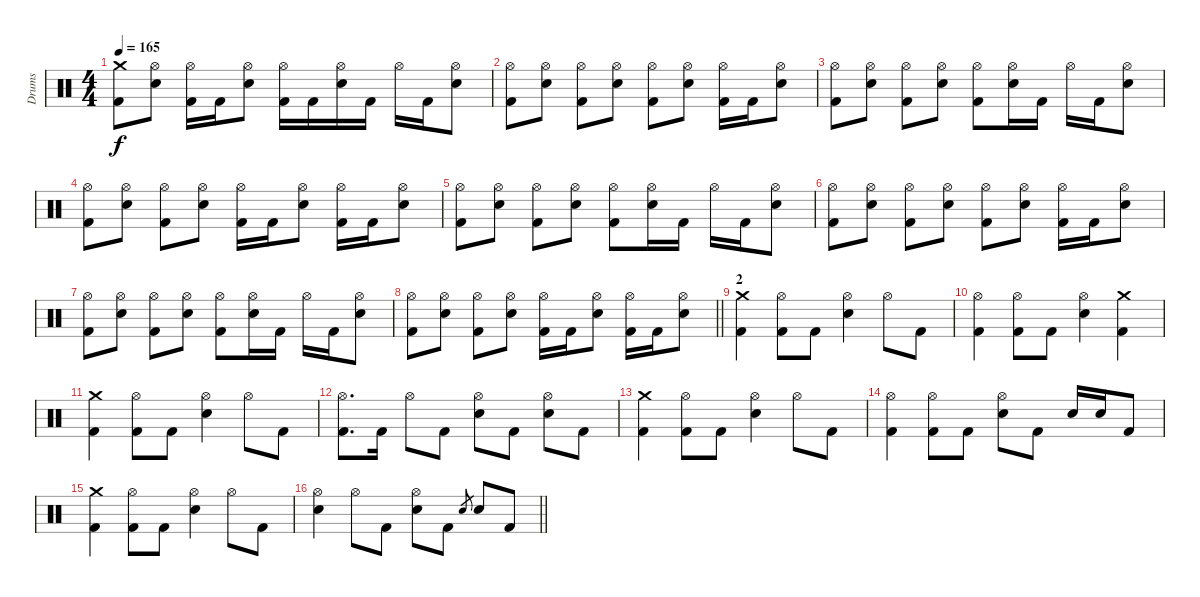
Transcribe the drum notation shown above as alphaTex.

\track ("Drums" "Drums") {instrument percussion}
\staff {score}
\articulation defaults
\ts (4 4)
\tempo 165
\clef neutral
\ks c
("Crash medium (hit)" "Kick (hit) 2").8{dy f} ("Hi-Hat (open)" "Electric Snare (hit)").8 ("Hi-Hat (open)" "Kick (hit) 2").16 "Kick (hit) 2".16 ("Hi-Hat (open)" "Electric Snare (hit)").8 ("Hi-Hat (open)" "Kick (hit) 2").16 "Kick (hit) 2".16 ("Hi-Hat (open)" "Electric Snare (hit)").16 "Kick (hit) 2".16 "Hi-Hat (open)".16 "Kick (hit) 2".16 ("Hi-Hat (open)" "Electric Snare (hit)").8 |
("Hi-Hat (open)" "Kick (hit) 2").8 ("Hi-Hat (open)" "Electric Snare (hit)").8 ("Hi-Hat (open)" "Kick (hit) 2").8 ("Hi-Hat (open)" "Electric Snare (hit)").8 ("Hi-Hat (open)" "Kick (hit) 2").8 ("Hi-Hat (open)" "Electric Snare (hit)").8 ("Hi-Hat (open)" "Kick (hit) 2").16 "Kick (hit) 2".16 ("Hi-Hat (open)" "Electric Snare (hit)").8 |
("Hi-Hat (open)" "Kick (hit) 2").8 ("Hi-Hat (open)" "Electric Snare (hit)").8 ("Hi-Hat (open)" "Kick (hit) 2").8 ("Hi-Hat (open)" "Electric Snare (hit)").8 ("Hi-Hat (open)" "Kick (hit) 2").8 ("Hi-Hat (open)" "Electric Snare (hit)").16 "Kick (hit) 2".16 "Hi-Hat (open)".16 "Kick (hit) 2".16 ("Hi-Hat (open)" "Electric Snare (hit)").8 |
("Hi-Hat (open)" "Kick (hit) 2").8 ("Hi-Hat (open)" "Electric Snare (hit)").8 ("Hi-Hat (open)" "Kick (hit) 2").8 ("Hi-Hat (open)" "Electric Snare (hit)").8 ("Hi-Hat (open)" "Kick (hit) 2").16 "Kick (hit) 2".16 ("Hi-Hat (open)" "Electric Snare (hit)").8 ("Hi-Hat (open)" "Kick (hit) 2").16 "Kick (hit) 2".16 ("Hi-Hat (open)" "Electric Snare (hit)").8 |
("Hi-Hat (open)" "Kick (hit) 2").8 ("Hi-Hat (open)" "Electric Snare (hit)").8 ("Hi-Hat (open)" "Kick (hit) 2").8 ("Hi-Hat (open)" "Electric Snare (hit)").8 ("Hi-Hat (open)" "Kick (hit) 2").8 ("Hi-Hat (open)" "Electric Snare (hit)").16 "Kick (hit) 2".16 "Hi-Hat (open)".16 "Kick (hit) 2".16 ("Hi-Hat (open)" "Electric Snare (hit)").8 |
("Hi-Hat (open)" "Kick (hit) 2").8 ("Hi-Hat (open)" "Electric Snare (hit)").8 ("Hi-Hat (open)" "Kick (hit) 2").8 ("Hi-Hat (open)" "Electric Snare (hit)").8 ("Hi-Hat (open)" "Kick (hit) 2").8 ("Hi-Hat (open)" "Electric Snare (hit)").8 ("Hi-Hat (open)" "Kick (hit) 2").16 "Kick (hit) 2".16 ("Hi-Hat (open)" "Electric Snare (hit)").8 |
("Hi-Hat (open)" "Kick (hit) 2").8 ("Hi-Hat (open)" "Electric Snare (hit)").8 ("Hi-Hat (open)" "Kick (hit) 2").8 ("Hi-Hat (open)" "Electric Snare (hit)").8 ("Hi-Hat (open)" "Kick (hit) 2").8 ("Hi-Hat (open)" "Electric Snare (hit)").16 "Kick (hit) 2".16 "Hi-Hat (open)".16 "Kick (hit) 2".16 ("Hi-Hat (open)" "Electric Snare (hit)").8 |
\barLineRight lightlight
("Hi-Hat (open)" "Kick (hit) 2").8 ("Hi-Hat (open)" "Electric Snare (hit)").8 ("Hi-Hat (open)" "Kick (hit) 2").8 ("Hi-Hat (open)" "Electric Snare (hit)").8 ("Hi-Hat (open)" "Kick (hit) 2").16 "Kick (hit) 2".16 ("Hi-Hat (open)" "Electric Snare (hit)").8 ("Hi-Hat (open)" "Kick (hit) 2").16 "Kick (hit) 2".16 ("Hi-Hat (open)" "Electric Snare (hit)").8 |
\section ("" "2")
("Crash medium (hit)" "Kick (hit) 2").4 ("Hi-Hat (open)" "Kick (hit) 2").8 "Kick (hit) 2".8 ("Hi-Hat (open)" "Electric Snare (hit)").4 "Hi-Hat (open)".8 "Kick (hit) 2".8 |
("Hi-Hat (open)" "Kick (hit) 2").4 ("Hi-Hat (open)" "Kick (hit) 2").8 "Kick (hit) 2".8 ("Hi-Hat (open)" "Electric Snare (hit)").4 ("Crash medium (hit)" "Kick (hit) 2").4 |
("Crash medium (hit)" "Kick (hit) 2").4 ("Hi-Hat (open)" "Kick (hit) 2").8 "Kick (hit) 2".8 ("Hi-Hat (open)" "Electric Snare (hit)").4 "Hi-Hat (open)".8 "Kick (hit) 2".8 |
("Hi-Hat (open)" "Kick (hit) 2").8{d} "Kick (hit) 2".16 "Hi-Hat (open)".8 "Kick (hit) 2".8 ("Hi-Hat (open)" "Electric Snare (hit)").8 "Kick (hit) 2".8 ("Hi-Hat (open)" "Electric Snare (hit)").8 "Kick (hit) 2".8 |
("Crash medium (hit)" "Kick (hit) 2").4 ("Hi-Hat (open)" "Kick (hit) 2").8 "Kick (hit) 2".8 ("Hi-Hat (open)" "Electric Snare (hit)").4 "Hi-Hat (open)".8 "Kick (hit) 2".8 |
("Hi-Hat (open)" "Kick (hit) 2").4 ("Hi-Hat (open)" "Kick (hit) 2").8 "Kick (hit) 2".8 ("Hi-Hat (open)" "Electric Snare (hit)").8 "Kick (hit) 2".8 "Electric Snare (hit)".16 "Electric Snare (hit)".16 "Kick (hit) 2".8 |
("Crash medium (hit)" "Kick (hit) 2").4 ("Hi-Hat (open)" "Kick (hit) 2").8 "Kick (hit) 2".8 ("Hi-Hat (open)" "Electric Snare (hit)").4 "Hi-Hat (open)".8 "Kick (hit) 2".8 |
\barLineRight lightlight
("Hi-Hat (open)" "Electric Snare (hit)").4 "Hi-Hat (open)".8 "Kick (hit) 2".8 ("Hi-Hat (open)" "Electric Snare (hit)").8 "Kick (hit) 2".8 "Electric Snare (hit)".8{gr} "Electric Snare (hit)".8 "Kick (hit) 2".8
